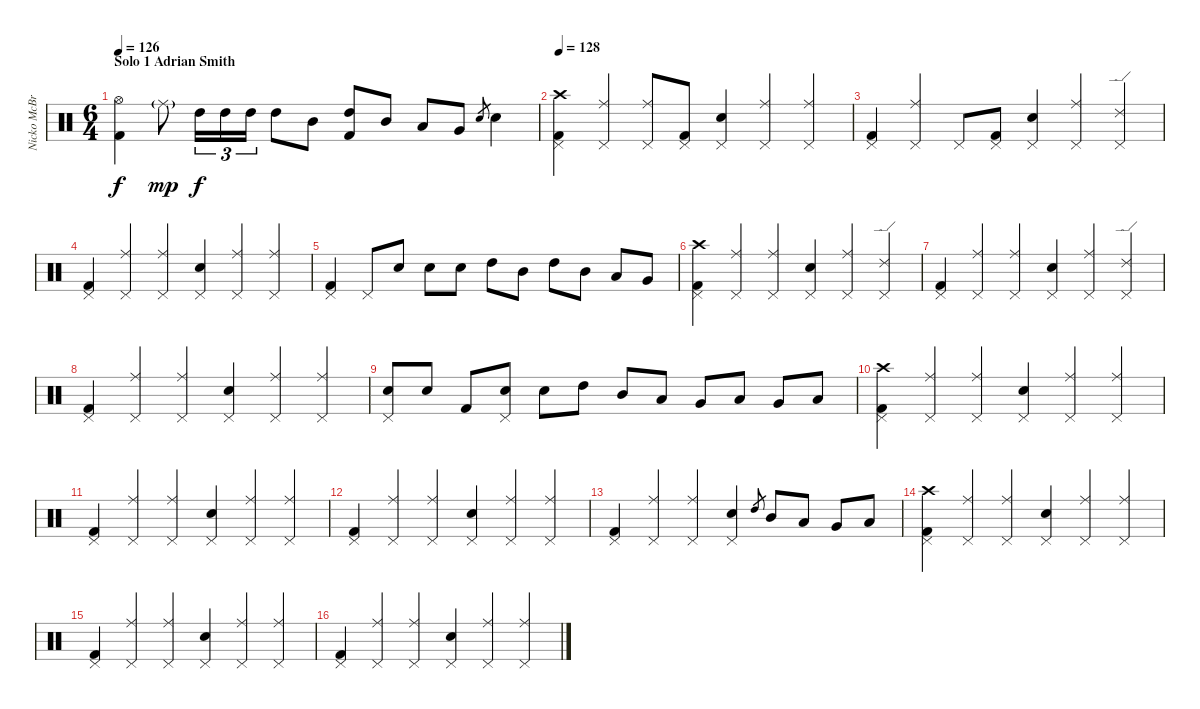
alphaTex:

\track ("Nicko McBrain" "Nicko McBr") {instrument percussion}
\staff {score}
\articulation defaults
\ts (6 4)
\section ("" "Solo 1 Adrian Smith")
\tempo 126
\clef neutral
\ks c
("Kick (hit) 2" "Hi-Hat (open)").4{dy f} "Ride (middle)"{g}.8{dy mp} "High Tom (hit)".16{tu (3 2) dy f} "High Tom (hit)".16{tu (3 2)} "High Tom (hit)".16{tu (3 2)} "High Tom (hit)".8 "Mid Tom (hit)".8 ("High Tom (hit)" "Kick (hit) 2").8 "Mid Tom (hit)".8 "Low Tom (hit)".8 "Very Low Tom (hit)".8 "Snare (hit) 2".8{gr} "Snare (hit) 2".4 |
\tempo 128
("Kick (hit) 2" "Pedal Hi-Hat (hit)" "Crash high (hit)").4 ("Pedal Hi-Hat (hit)" "Ride (middle)").4 ("Pedal Hi-Hat (hit)" "Ride (middle)").8 ("Kick (hit) 2" "Pedal Hi-Hat (hit)").8 ("Snare (hit) 2" "Pedal Hi-Hat (hit)").4 ("Pedal Hi-Hat (hit)" "Ride (middle)").4 ("Pedal Hi-Hat (hit)" "Ride (middle)").4 |
("Kick (hit) 2" "Pedal Hi-Hat (hit)").4 ("Pedal Hi-Hat (hit)" "Ride (middle)").4 "Pedal Hi-Hat (hit)".8 ("Kick (hit) 2" "Pedal Hi-Hat (hit)").8 ("Snare (hit) 2" "Pedal Hi-Hat (hit)").4 ("Pedal Hi-Hat (hit)" "Ride (middle)").4 ("Pedal Hi-Hat (hit)" "Ride (edge) 2").4 |
("Kick (hit) 2" "Pedal Hi-Hat (hit)").4 ("Pedal Hi-Hat (hit)" "Ride (middle)").4 ("Pedal Hi-Hat (hit)" "Ride (middle)").4 ("Snare (hit) 2" "Pedal Hi-Hat (hit)").4 ("Pedal Hi-Hat (hit)" "Ride (middle)").4 ("Pedal Hi-Hat (hit)" "Ride (middle)").4 |
("Kick (hit) 2" "Pedal Hi-Hat (hit)").4 "Pedal Hi-Hat (hit)".8 "Snare (hit) 2".8 "Snare (hit) 2".8 "Snare (hit) 2".8 "High Tom (hit)".8 "Mid Tom (hit)".8 "High Tom (hit)".8 "Mid Tom (hit)".8 "Low Tom (hit)".8 "Very Low Tom (hit)".8 |
("Kick (hit) 2" "Pedal Hi-Hat (hit)" "Crash high (hit)").4 ("Pedal Hi-Hat (hit)" "Ride (middle)").4 ("Pedal Hi-Hat (hit)" "Ride (middle)").4 ("Snare (hit) 2" "Pedal Hi-Hat (hit)").4 ("Pedal Hi-Hat (hit)" "Ride (middle)").4 ("Pedal Hi-Hat (hit)" "Ride (edge) 2").4 |
("Kick (hit) 2" "Pedal Hi-Hat (hit)").4 ("Pedal Hi-Hat (hit)" "Ride (middle)").4 ("Pedal Hi-Hat (hit)" "Ride (middle)").4 ("Snare (hit) 2" "Pedal Hi-Hat (hit)").4 ("Pedal Hi-Hat (hit)" "Ride (middle)").4 ("Pedal Hi-Hat (hit)" "Ride (edge) 2").4 |
("Kick (hit) 2" "Pedal Hi-Hat (hit)").4 ("Pedal Hi-Hat (hit)" "Ride (middle)").4 ("Pedal Hi-Hat (hit)" "Ride (middle)").4 ("Snare (hit) 2" "Pedal Hi-Hat (hit)").4 ("Pedal Hi-Hat (hit)" "Ride (middle)").4 ("Pedal Hi-Hat (hit)" "Ride (middle)").4 |
("Snare (hit) 2" "Pedal Hi-Hat (hit)").8 "Snare (hit) 2".8 "Kick (hit) 2".8 ("Snare (hit) 2" "Pedal Hi-Hat (hit)").8 "Snare (hit) 2".8 "High Tom (hit)".8 "Mid Tom (hit)".8 "Low Tom (hit)".8 "Very Low Tom (hit)".8 "Low Floor Tom (hit)".8 "Very Low Tom (hit)".8 "Low Floor Tom (hit)".8 |
("Kick (hit) 2" "Pedal Hi-Hat (hit)" "Crash high (hit)").4 ("Pedal Hi-Hat (hit)" "Ride (middle)").4 ("Pedal Hi-Hat (hit)" "Ride (middle)").4 ("Snare (hit) 2" "Pedal Hi-Hat (hit)").4 ("Pedal Hi-Hat (hit)" "Ride (middle)").4 ("Pedal Hi-Hat (hit)" "Ride (middle)").4 |
("Kick (hit) 2" "Pedal Hi-Hat (hit)").4 ("Pedal Hi-Hat (hit)" "Ride (middle)").4 ("Pedal Hi-Hat (hit)" "Ride (middle)").4 ("Snare (hit) 2" "Pedal Hi-Hat (hit)").4 ("Pedal Hi-Hat (hit)" "Ride (middle)").4 ("Pedal Hi-Hat (hit)" "Ride (middle)").4 |
("Kick (hit) 2" "Pedal Hi-Hat (hit)").4 ("Pedal Hi-Hat (hit)" "Ride (middle)").4 ("Pedal Hi-Hat (hit)" "Ride (middle)").4 ("Snare (hit) 2" "Pedal Hi-Hat (hit)").4 ("Pedal Hi-Hat (hit)" "Ride (middle)").4 ("Pedal Hi-Hat (hit)" "Ride (middle)").4 |
("Kick (hit) 2" "Pedal Hi-Hat (hit)").4 ("Pedal Hi-Hat (hit)" "Ride (middle)").4 ("Pedal Hi-Hat (hit)" "Ride (middle)").4 ("Snare (hit) 2" "Pedal Hi-Hat (hit)").4 "High Tom (hit)".8{gr} "Mid Tom (hit)".8 "Low Tom (hit)".8 "Very Low Tom (hit)".8 "Low Floor Tom (hit)".8 |
("Kick (hit) 2" "Pedal Hi-Hat (hit)" "Crash high (hit)").4 ("Pedal Hi-Hat (hit)" "Ride (middle)").4 ("Pedal Hi-Hat (hit)" "Ride (middle)").4 ("Snare (hit) 2" "Pedal Hi-Hat (hit)").4 ("Pedal Hi-Hat (hit)" "Ride (middle)").4 ("Pedal Hi-Hat (hit)" "Ride (middle)").4 |
("Kick (hit) 2" "Pedal Hi-Hat (hit)").4 ("Pedal Hi-Hat (hit)" "Ride (middle)").4 ("Pedal Hi-Hat (hit)" "Ride (middle)").4 ("Snare (hit) 2" "Pedal Hi-Hat (hit)").4 ("Pedal Hi-Hat (hit)" "Ride (middle)").4 ("Pedal Hi-Hat (hit)" "Ride (middle)").4 |
("Kick (hit) 2" "Pedal Hi-Hat (hit)").4 ("Pedal Hi-Hat (hit)" "Ride (middle)").4 ("Pedal Hi-Hat (hit)" "Ride (middle)").4 ("Snare (hit) 2" "Pedal Hi-Hat (hit)").4 ("Pedal Hi-Hat (hit)" "Ride (middle)").4 ("Pedal Hi-Hat (hit)" "Ride (middle)").4
